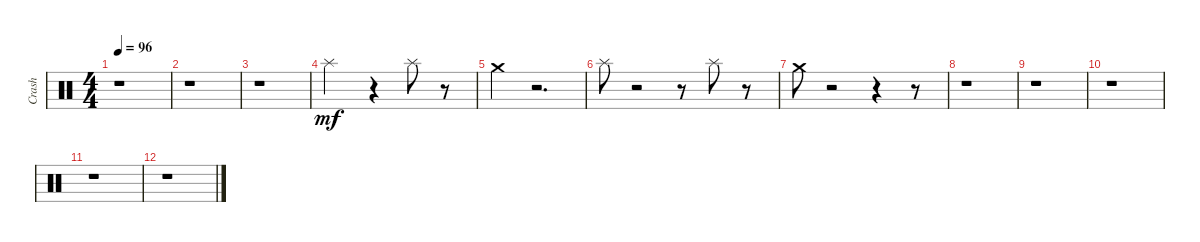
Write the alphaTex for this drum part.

\track ("Crash" "Crash") {instrument percussion}
\staff {score}
\articulation defaults
\ts (4 4)
\tempo 96
\clef neutral
\ks c
r.1{dy mf} |
r.1 |
r.1 |
"Splash (hit)".2 r.4 "Splash (hit)".8 r.8 |
"Crash medium (hit)".4 r.2{d} |
"Splash (hit)".8 r.2 r.8 "Splash (hit)".8 r.8 |
"Crash medium (hit)".8 r.2 r.4 r.8 |
r.1 |
r.1 |
r.1 |
r.1 |
r.1
